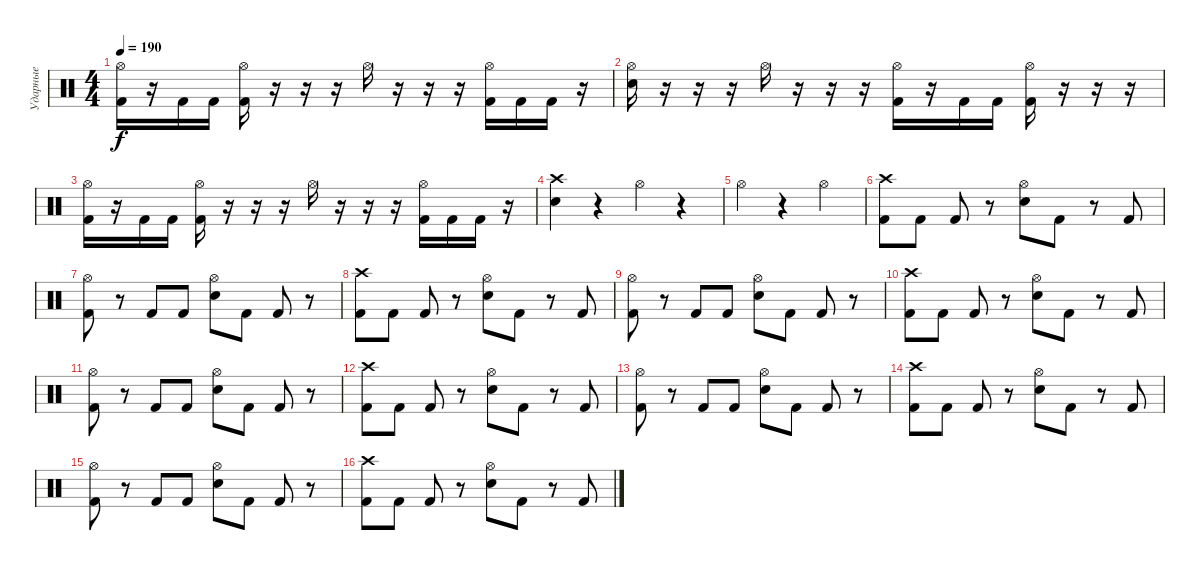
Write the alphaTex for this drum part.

\track ("Ударные" "Ударные") {instrument percussion}
\staff {score}
\articulation defaults
\ts (4 4)
\tempo 190
\clef neutral
\ks c
("Hi-Hat (open)" "Kick (hit) 2").16{dy f} r.16 "Kick (hit) 2".16 "Kick (hit) 2".16 ("Hi-Hat (open)" "Kick (hit) 2").16 r.16 r.16 r.16 "Hi-Hat (open)".16 r.16 r.16 r.16 ("Hi-Hat (open)" "Kick (hit) 2").16 "Kick (hit) 2".16 "Kick (hit) 2".16 r.16 |
("Hi-Hat (open)" "Electric Snare (hit)").16 r.16 r.16 r.16 "Hi-Hat (open)".16 r.16 r.16 r.16 ("Hi-Hat (open)" "Kick (hit) 2").16 r.16 "Kick (hit) 2".16 "Kick (hit) 2".16 ("Hi-Hat (open)" "Kick (hit) 2").16 r.16 r.16 r.16 |
("Hi-Hat (open)" "Kick (hit) 2").16 r.16 "Kick (hit) 2".16 "Kick (hit) 2".16 ("Hi-Hat (open)" "Kick (hit) 2").16 r.16 r.16 r.16 "Hi-Hat (open)".16 r.16 r.16 r.16 ("Hi-Hat (open)" "Kick (hit) 2").16 "Kick (hit) 2".16 "Kick (hit) 2".16 r.16 |
("Crash high (hit)" "Electric Snare (hit)").4 r.4 "Hi-Hat (open)".4 r.4 |
"Hi-Hat (open)".4 r.4 "Hi-Hat (open)".4 |
("Crash high (hit)" "Kick (hit) 2").8 "Kick (hit) 2".8 "Kick (hit) 2".8 r.8 ("Hi-Hat (open)" "Electric Snare (hit)").8 "Kick (hit) 2".8 r.8 "Kick (hit) 2".8 |
("Hi-Hat (open)" "Kick (hit) 2").8 r.8 "Kick (hit) 2".8 "Kick (hit) 2".8 ("Hi-Hat (open)" "Electric Snare (hit)").8 "Kick (hit) 2".8 "Kick (hit) 2".8 r.8 |
("Crash high (hit)" "Kick (hit) 2").8 "Kick (hit) 2".8 "Kick (hit) 2".8 r.8 ("Hi-Hat (open)" "Electric Snare (hit)").8 "Kick (hit) 2".8 r.8 "Kick (hit) 2".8 |
("Hi-Hat (open)" "Kick (hit) 2").8 r.8 "Kick (hit) 2".8 "Kick (hit) 2".8 ("Hi-Hat (open)" "Electric Snare (hit)").8 "Kick (hit) 2".8 "Kick (hit) 2".8 r.8 |
("Crash high (hit)" "Kick (hit) 2").8 "Kick (hit) 2".8 "Kick (hit) 2".8 r.8 ("Hi-Hat (open)" "Electric Snare (hit)").8 "Kick (hit) 2".8 r.8 "Kick (hit) 2".8 |
("Hi-Hat (open)" "Kick (hit) 2").8 r.8 "Kick (hit) 2".8 "Kick (hit) 2".8 ("Hi-Hat (open)" "Electric Snare (hit)").8 "Kick (hit) 2".8 "Kick (hit) 2".8 r.8 |
("Crash high (hit)" "Kick (hit) 2").8 "Kick (hit) 2".8 "Kick (hit) 2".8 r.8 ("Hi-Hat (open)" "Electric Snare (hit)").8 "Kick (hit) 2".8 r.8 "Kick (hit) 2".8 |
("Hi-Hat (open)" "Kick (hit) 2").8 r.8 "Kick (hit) 2".8 "Kick (hit) 2".8 ("Hi-Hat (open)" "Electric Snare (hit)").8 "Kick (hit) 2".8 "Kick (hit) 2".8 r.8 |
("Crash high (hit)" "Kick (hit) 2").8 "Kick (hit) 2".8 "Kick (hit) 2".8 r.8 ("Hi-Hat (open)" "Electric Snare (hit)").8 "Kick (hit) 2".8 r.8 "Kick (hit) 2".8 |
("Hi-Hat (open)" "Kick (hit) 2").8 r.8 "Kick (hit) 2".8 "Kick (hit) 2".8 ("Hi-Hat (open)" "Electric Snare (hit)").8 "Kick (hit) 2".8 "Kick (hit) 2".8 r.8 |
("Crash high (hit)" "Kick (hit) 2").8 "Kick (hit) 2".8 "Kick (hit) 2".8 r.8 ("Hi-Hat (open)" "Electric Snare (hit)").8 "Kick (hit) 2".8 r.8 "Kick (hit) 2".8
